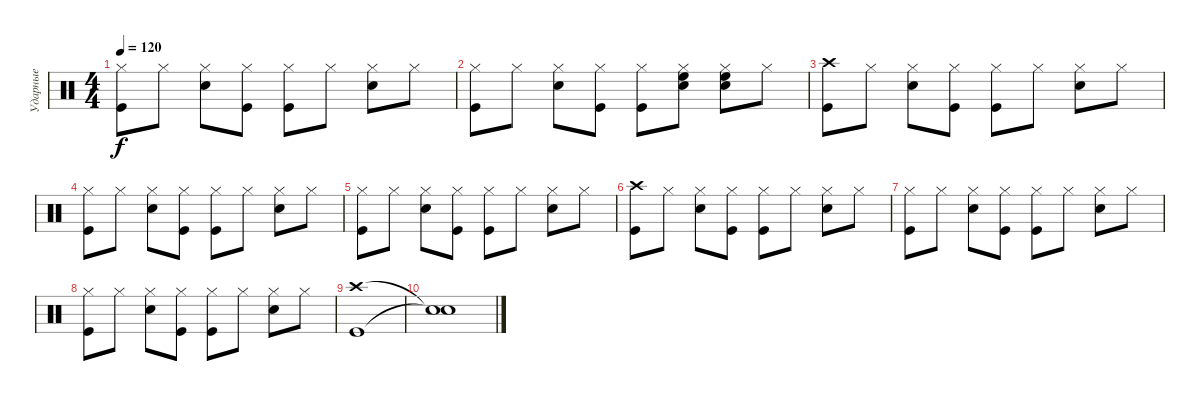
\track ("Ударные" "Ударные") {instrument percussion}
\staff {score}
\articulation defaults
\ts (4 4)
\tempo 120
\clef neutral
\ks c
("Hi-Hat (closed)" "Kick (hit)").8{dy f} "Hi-Hat (closed)".8 ("Hi-Hat (closed)" "Snare (hit) 2").8 ("Hi-Hat (closed)" "Kick (hit)").8 ("Hi-Hat (closed)" "Kick (hit)").8 "Hi-Hat (closed)".8 ("Hi-Hat (closed)" "Snare (hit) 2").8 "Hi-Hat (closed)".8 |
("Hi-Hat (closed)" "Kick (hit)").8 "Hi-Hat (closed)".8 ("Hi-Hat (closed)" "Snare (hit) 2").8 ("Hi-Hat (closed)" "Kick (hit)").8 ("Hi-Hat (closed)" "Kick (hit)").8 ("Hi-Hat (closed)" "High Floor Tom (hit)" "Snare (hit) 2").8 ("Hi-Hat (closed)" "High Floor Tom (hit)" "Snare (hit) 2").8 "Hi-Hat (closed)".8 |
("Crash high (hit)" "Kick (hit)").8 "Hi-Hat (closed)".8 ("Hi-Hat (closed)" "Snare (hit) 2").8 ("Hi-Hat (closed)" "Kick (hit)").8 ("Hi-Hat (closed)" "Kick (hit)").8 "Hi-Hat (closed)".8 ("Hi-Hat (closed)" "Snare (hit) 2").8 "Hi-Hat (closed)".8 |
("Hi-Hat (closed)" "Kick (hit)").8 "Hi-Hat (closed)".8 ("Hi-Hat (closed)" "Snare (hit) 2").8 ("Hi-Hat (closed)" "Kick (hit)").8 ("Hi-Hat (closed)" "Kick (hit)").8 "Hi-Hat (closed)".8 ("Hi-Hat (closed)" "Snare (hit) 2").8 "Hi-Hat (closed)".8 |
("Hi-Hat (closed)" "Kick (hit)").8 "Hi-Hat (closed)".8 ("Hi-Hat (closed)" "Snare (hit) 2").8 ("Hi-Hat (closed)" "Kick (hit)").8 ("Hi-Hat (closed)" "Kick (hit)").8 "Hi-Hat (closed)".8 ("Hi-Hat (closed)" "Snare (hit) 2").8 "Hi-Hat (closed)".8 |
("Crash high (hit)" "Kick (hit)").8 "Hi-Hat (closed)".8 ("Hi-Hat (closed)" "Snare (hit) 2").8 ("Hi-Hat (closed)" "Kick (hit)").8 ("Hi-Hat (closed)" "Kick (hit)").8 "Hi-Hat (closed)".8 ("Hi-Hat (closed)" "Snare (hit) 2").8 "Hi-Hat (closed)".8 |
("Hi-Hat (closed)" "Kick (hit)").8 "Hi-Hat (closed)".8 ("Hi-Hat (closed)" "Snare (hit) 2").8 ("Hi-Hat (closed)" "Kick (hit)").8 ("Hi-Hat (closed)" "Kick (hit)").8 "Hi-Hat (closed)".8 ("Hi-Hat (closed)" "Snare (hit) 2").8 "Hi-Hat (closed)".8 |
("Hi-Hat (closed)" "Kick (hit)").8 "Hi-Hat (closed)".8 ("Hi-Hat (closed)" "Snare (hit) 2").8 ("Hi-Hat (closed)" "Kick (hit)").8 ("Hi-Hat (closed)" "Kick (hit)").8 "Hi-Hat (closed)".8 ("Hi-Hat (closed)" "Snare (hit) 2").8 "Hi-Hat (closed)".8 |
("Crash high (hit)" "Kick (hit)").1 |
("Snare (hit)"{t} "Snare (hit)"{t}).1
